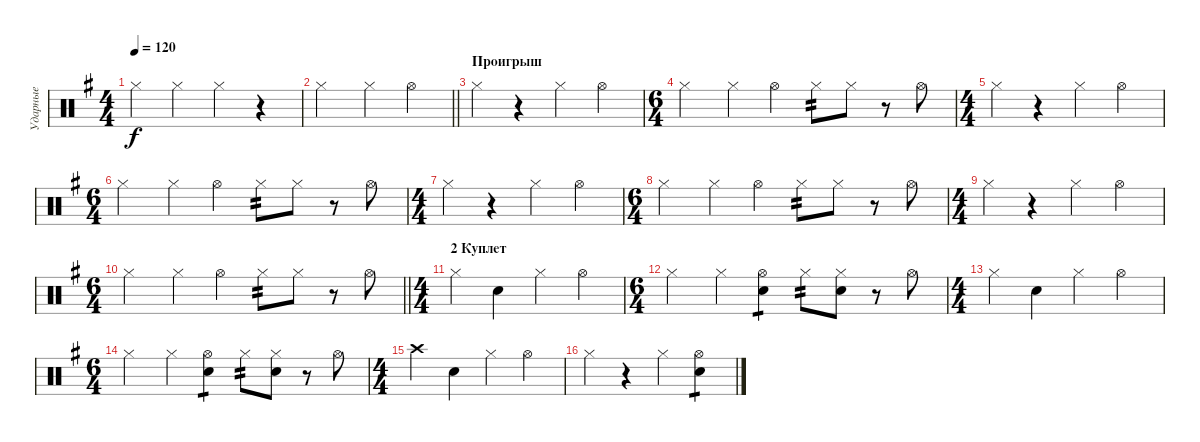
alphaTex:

\track ("Ударные" "Ударные") {instrument percussion}
\staff {score}
\articulation defaults
\ts (4 4)
\tempo 120
\clef neutral
\ks eminor "Hi-Hat (closed)".4{dy f} "Hi-Hat (closed)".4 "Hi-Hat (closed)".4
r.4 |
\barLineRight lightlight "Hi-Hat (closed)".2 "Hi-Hat (closed)".4 "Hi-Hat (open)".4
|
\section ("" "Проигрыш")
"Hi-Hat (closed)".4 r.4 "Hi-Hat (closed)".4 "Hi-Hat (open)".4 |
\ts (6 4)
"Hi-Hat (closed)".2 "Hi-Hat (closed)".4 "Hi-Hat (open)".4 "Hi-Hat (closed)".8{tp 2} "Hi-Hat (closed)".8 r.8 "Hi-Hat (open)".8 |
\ts (4 4)
"Hi-Hat (closed)".4 r.4 "Hi-Hat (closed)".4 "Hi-Hat (open)".4 |
\ts (6 4)
"Hi-Hat (closed)".2 "Hi-Hat (closed)".4 "Hi-Hat (open)".4 "Hi-Hat (closed)".8{tp 2} "Hi-Hat (closed)".8 r.8 "Hi-Hat (open)".8 |
\ts (4 4)
"Hi-Hat (closed)".4 r.4 "Hi-Hat (closed)".4 "Hi-Hat (open)".4 |
\ts (6 4)
"Hi-Hat (closed)".2 "Hi-Hat (closed)".4 "Hi-Hat (open)".4 "Hi-Hat (closed)".8{tp 2} "Hi-Hat (closed)".8 r.8 "Hi-Hat (open)".8 |
\ts (4 4)
"Hi-Hat (closed)".4 r.4 "Hi-Hat (closed)".4 "Hi-Hat (open)".4 |
\ts (6 4)
\barLineRight lightlight "Hi-Hat (closed)".2 "Hi-Hat (closed)".4 "Hi-Hat (open)".4 "Hi-Hat (closed)".8{tp 2} "Hi-Hat (closed)".8
r.8 "Hi-Hat (open)".8 |
\ts (4 4)
\section ("" "2 Куплет")
"Hi-Hat (closed)".4 "Snare (hit) 2".4 "Hi-Hat (closed)".4 "Hi-Hat (open)".4 |
\ts (6 4)
"Hi-Hat (closed)".2 "Hi-Hat (closed)".4 ("Hi-Hat (open)" "Snare (hit) 2").4{tp 1} "Hi-Hat (closed)".8{tp 2} ("Hi-Hat (closed)" "Snare (hit) 2").8 r.8 "Hi-Hat (open)".8 |
\ts (4 4)
"Hi-Hat (closed)".4 "Snare (hit) 2".4 "Hi-Hat (closed)".4 "Hi-Hat (open)".4 |
\ts (6 4)
"Hi-Hat (closed)".2 "Hi-Hat (closed)".4 ("Hi-Hat (open)" "Snare (hit) 2").4{tp 1} "Hi-Hat (closed)".8{tp 2} ("Hi-Hat (closed)" "Snare (hit) 2").8 r.8 "Hi-Hat (open)".8 |
\ts (4 4)
"Crash high (hit)".4 "Snare (hit) 2".4 "Hi-Hat (closed)".4 "Hi-Hat (open)".4 |
"Hi-Hat (closed)".4 r.4 "Hi-Hat (closed)".4 ("Hi-Hat (open)" "Snare (hit) 2").4{tp 1}
